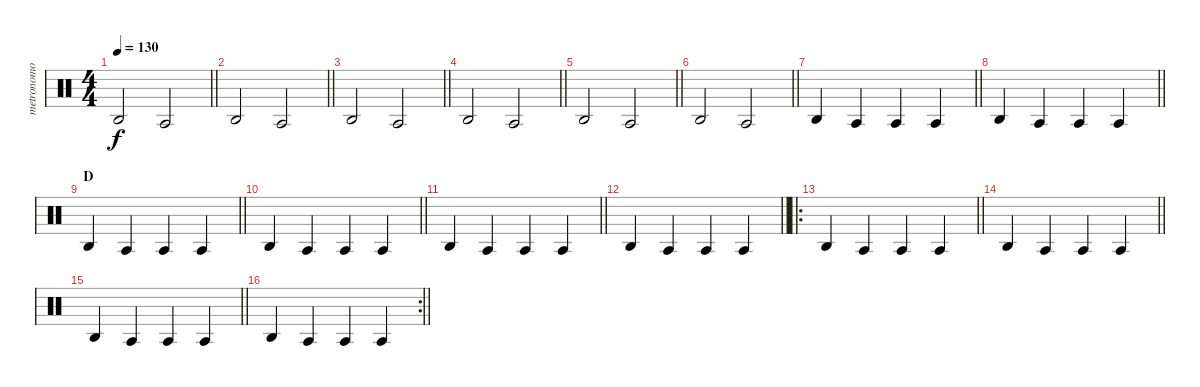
\track ("metronomo" "metronomo") {mute instrument percussion}
\staff {score}
\articulation defaults
\ts (4 4)
\tempo 130
\clef neutral
\barLineRight lightlight
\ks c "Agogo high (hit)".2{dy f} "Agogo tow (hit)".2
|
\barLineRight lightlight "Agogo high (hit)".2 "Agogo tow (hit)".2
|
\barLineRight lightlight "Agogo high (hit)".2 "Agogo tow (hit)".2
|
\barLineRight lightlight "Agogo high (hit)".2 "Agogo tow (hit)".2
|
\barLineRight lightlight "Agogo high (hit)".2 "Agogo tow (hit)".2
|
\barLineRight lightlight "Agogo high (hit)".2 "Agogo tow (hit)".2
|
\barLineRight lightlight "Agogo high (hit)".4 "Agogo tow (hit)".4 "Agogo tow (hit)".4 "Agogo tow (hit)".4
|
\barLineRight lightlight "Agogo high (hit)".4 "Agogo tow (hit)".4 "Agogo tow (hit)".4 "Agogo tow (hit)".4
|
\section ("" "D")
\barLineRight lightlight "Agogo high (hit)".4 "Agogo tow (hit)".4 "Agogo tow (hit)".4 "Agogo tow (hit)".4
|
\barLineRight lightlight "Agogo high (hit)".4 "Agogo tow (hit)".4 "Agogo tow (hit)".4 "Agogo tow (hit)".4
|
\barLineRight lightlight "Agogo high (hit)".4 "Agogo tow (hit)".4 "Agogo tow (hit)".4 "Agogo tow (hit)".4
|
\barLineRight lightlight "Agogo high (hit)".4 "Agogo tow (hit)".4 "Agogo tow (hit)".4 "Agogo tow (hit)".4
|
\ro
\barLineRight lightlight "Agogo high (hit)".4 "Agogo tow (hit)".4 "Agogo tow (hit)".4 "Agogo tow (hit)".4
|
\barLineRight lightlight "Agogo high (hit)".4 "Agogo tow (hit)".4 "Agogo tow (hit)".4 "Agogo tow (hit)".4
|
\barLineRight lightlight "Agogo high (hit)".4 "Agogo tow (hit)".4 "Agogo tow (hit)".4 "Agogo tow (hit)".4
|
\rc 2
\barLineRight lightlight "Agogo high (hit)".4 "Agogo tow (hit)".4 "Agogo tow (hit)".4 "Agogo tow (hit)".4
